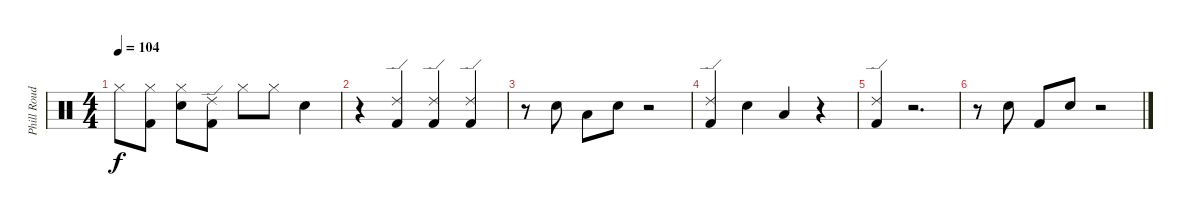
\track ("Phill Roud" "Phill Roud") {instrument percussion}
\staff {score}
\articulation defaults
\ts (4 4)
\tempo 104
\clef neutral
\ks c "Hi-Hat (closed)".8{dy f}
("Hi-Hat (closed)" "Kick (hit) 2").8 ("Hi-Hat (closed)" "Snare (hit) 2").8 ("Kick (hit) 2" "Ride (edge) 2").8 "Hi-Hat (closed)".8 "Hi-Hat (closed)".8 "Snare (hit) 2".4 |
r.4 ("Kick (hit) 2" "Ride (edge) 2").4 ("Kick (hit) 2" "Ride (edge) 2").4 ("Kick (hit) 2" "Ride (edge) 2").4 |
r.8 "Snare (hit) 2".8 "Low Tom (hit)".8 "Snare (hit) 2".8 r.2 |
("Kick (hit) 2" "Ride (edge) 2").4 "Snare (hit) 2".4 "Low Floor Tom (hit)".4 r.4 |
("Kick (hit) 2" "Ride (edge) 2").4 r.2{d} |
r.8 "Snare (hit) 2".8 "Kick (hit) 2".8 "Snare (hit) 2".8 r.2
